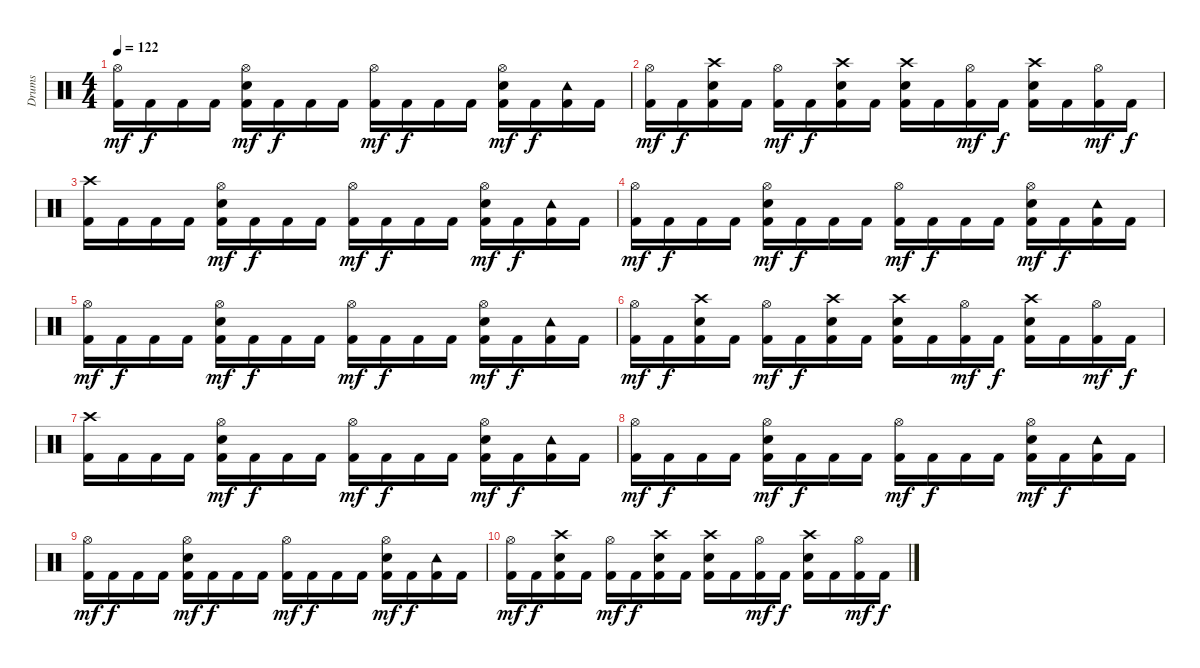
\track ("Drums" "Drums") {instrument percussion}
\staff {score}
\articulation defaults
\ts (4 4)
\tempo 122
\clef neutral
\ks c
("Hi-Hat (open)" "Kick (hit) 2").16{dy mf} "Kick (hit) 2".16{dy f} "Kick (hit) 2".16 "Kick (hit) 2".16 ("Hi-Hat (open)" "Electric Snare (hit)" "Kick (hit) 2").16{dy mf} "Kick (hit) 2".16{dy f} "Kick (hit) 2".16 "Kick (hit) 2".16 ("Hi-Hat (open)" "Kick (hit) 2").16{dy mf} "Kick (hit) 2".16{dy f} "Kick (hit) 2".16 "Kick (hit) 2".16 ("Hi-Hat (open)" "Electric Snare (hit)" "Kick (hit) 2").16{dy mf} "Kick (hit) 2".16{dy f} ("Tambourine (hit)" "Kick (hit) 2").16 "Kick (hit) 2".16 |
("Hi-Hat (open)" "Kick (hit) 2").16{dy mf} "Kick (hit) 2".16{dy f} ("Crash high (hit)" "Electric Snare (hit)" "Kick (hit) 2").16 "Kick (hit) 2".16 ("Hi-Hat (open)" "Kick (hit) 2").16{dy mf} "Kick (hit) 2".16{dy f} ("Crash high (hit)" "Electric Snare (hit)" "Kick (hit) 2").16 "Kick (hit) 2".16 ("Crash high (hit)" "Electric Snare (hit)" "Kick (hit) 2").16 "Kick (hit) 2".16 ("Hi-Hat (open)" "Kick (hit) 2").16{dy mf} "Kick (hit) 2".16{dy f} ("Crash high (hit)" "Electric Snare (hit)" "Kick (hit) 2").16 "Kick (hit) 2".16 ("Hi-Hat (open)" "Kick (hit) 2").16{dy mf} "Kick (hit) 2".16{dy f} |
("Crash high (hit)" "Kick (hit) 2").16 "Kick (hit) 2".16 "Kick (hit) 2".16 "Kick (hit) 2".16 ("Hi-Hat (open)" "Electric Snare (hit)" "Kick (hit) 2").16{dy mf} "Kick (hit) 2".16{dy f} "Kick (hit) 2".16 "Kick (hit) 2".16 ("Hi-Hat (open)" "Kick (hit) 2").16{dy mf} "Kick (hit) 2".16{dy f} "Kick (hit) 2".16 "Kick (hit) 2".16 ("Hi-Hat (open)" "Electric Snare (hit)" "Kick (hit) 2").16{dy mf} "Kick (hit) 2".16{dy f} ("Tambourine (hit)" "Kick (hit) 2").16 "Kick (hit) 2".16 |
("Hi-Hat (open)" "Kick (hit) 2").16{dy mf} "Kick (hit) 2".16{dy f} "Kick (hit) 2".16 "Kick (hit) 2".16 ("Hi-Hat (open)" "Electric Snare (hit)" "Kick (hit) 2").16{dy mf} "Kick (hit) 2".16{dy f} "Kick (hit) 2".16 "Kick (hit) 2".16 ("Hi-Hat (open)" "Kick (hit) 2").16{dy mf} "Kick (hit) 2".16{dy f} "Kick (hit) 2".16 "Kick (hit) 2".16 ("Hi-Hat (open)" "Electric Snare (hit)" "Kick (hit) 2").16{dy mf} "Kick (hit) 2".16{dy f} ("Tambourine (hit)" "Kick (hit) 2").16 "Kick (hit) 2".16 |
("Hi-Hat (open)" "Kick (hit) 2").16{dy mf} "Kick (hit) 2".16{dy f} "Kick (hit) 2".16 "Kick (hit) 2".16 ("Hi-Hat (open)" "Electric Snare (hit)" "Kick (hit) 2").16{dy mf} "Kick (hit) 2".16{dy f} "Kick (hit) 2".16 "Kick (hit) 2".16 ("Hi-Hat (open)" "Kick (hit) 2").16{dy mf} "Kick (hit) 2".16{dy f} "Kick (hit) 2".16 "Kick (hit) 2".16 ("Hi-Hat (open)" "Electric Snare (hit)" "Kick (hit) 2").16{dy mf} "Kick (hit) 2".16{dy f} ("Tambourine (hit)" "Kick (hit) 2").16 "Kick (hit) 2".16 |
("Hi-Hat (open)" "Kick (hit) 2").16{dy mf} "Kick (hit) 2".16{dy f} ("Crash high (hit)" "Electric Snare (hit)" "Kick (hit) 2").16 "Kick (hit) 2".16 ("Hi-Hat (open)" "Kick (hit) 2").16{dy mf} "Kick (hit) 2".16{dy f} ("Crash high (hit)" "Electric Snare (hit)" "Kick (hit) 2").16 "Kick (hit) 2".16 ("Crash high (hit)" "Electric Snare (hit)" "Kick (hit) 2").16 "Kick (hit) 2".16 ("Hi-Hat (open)" "Kick (hit) 2").16{dy mf} "Kick (hit) 2".16{dy f} ("Crash high (hit)" "Electric Snare (hit)" "Kick (hit) 2").16 "Kick (hit) 2".16 ("Hi-Hat (open)" "Kick (hit) 2").16{dy mf} "Kick (hit) 2".16{dy f} |
("Crash high (hit)" "Kick (hit) 2").16 "Kick (hit) 2".16 "Kick (hit) 2".16 "Kick (hit) 2".16 ("Hi-Hat (open)" "Electric Snare (hit)" "Kick (hit) 2").16{dy mf} "Kick (hit) 2".16{dy f} "Kick (hit) 2".16 "Kick (hit) 2".16 ("Hi-Hat (open)" "Kick (hit) 2").16{dy mf} "Kick (hit) 2".16{dy f} "Kick (hit) 2".16 "Kick (hit) 2".16 ("Hi-Hat (open)" "Electric Snare (hit)" "Kick (hit) 2").16{dy mf} "Kick (hit) 2".16{dy f} ("Tambourine (hit)" "Kick (hit) 2").16 "Kick (hit) 2".16 |
("Hi-Hat (open)" "Kick (hit) 2").16{dy mf} "Kick (hit) 2".16{dy f} "Kick (hit) 2".16 "Kick (hit) 2".16 ("Hi-Hat (open)" "Electric Snare (hit)" "Kick (hit) 2").16{dy mf} "Kick (hit) 2".16{dy f} "Kick (hit) 2".16 "Kick (hit) 2".16 ("Hi-Hat (open)" "Kick (hit) 2").16{dy mf} "Kick (hit) 2".16{dy f} "Kick (hit) 2".16 "Kick (hit) 2".16 ("Hi-Hat (open)" "Electric Snare (hit)" "Kick (hit) 2").16{dy mf} "Kick (hit) 2".16{dy f} ("Tambourine (hit)" "Kick (hit) 2").16 "Kick (hit) 2".16 |
("Hi-Hat (open)" "Kick (hit) 2").16{dy mf} "Kick (hit) 2".16{dy f} "Kick (hit) 2".16 "Kick (hit) 2".16 ("Hi-Hat (open)" "Electric Snare (hit)" "Kick (hit) 2").16{dy mf} "Kick (hit) 2".16{dy f} "Kick (hit) 2".16 "Kick (hit) 2".16 ("Hi-Hat (open)" "Kick (hit) 2").16{dy mf} "Kick (hit) 2".16{dy f} "Kick (hit) 2".16 "Kick (hit) 2".16 ("Hi-Hat (open)" "Electric Snare (hit)" "Kick (hit) 2").16{dy mf} "Kick (hit) 2".16{dy f} ("Tambourine (hit)" "Kick (hit) 2").16 "Kick (hit) 2".16 |
("Hi-Hat (open)" "Kick (hit) 2").16{dy mf} "Kick (hit) 2".16{dy f} ("Crash high (hit)" "Electric Snare (hit)" "Kick (hit) 2").16 "Kick (hit) 2".16 ("Hi-Hat (open)" "Kick (hit) 2").16{dy mf} "Kick (hit) 2".16{dy f} ("Crash high (hit)" "Electric Snare (hit)" "Kick (hit) 2").16 "Kick (hit) 2".16 ("Crash high (hit)" "Electric Snare (hit)" "Kick (hit) 2").16 "Kick (hit) 2".16 ("Hi-Hat (open)" "Kick (hit) 2").16{dy mf} "Kick (hit) 2".16{dy f} ("Crash high (hit)" "Electric Snare (hit)" "Kick (hit) 2").16 "Kick (hit) 2".16 ("Hi-Hat (open)" "Kick (hit) 2").16{dy mf} "Kick (hit) 2".16{dy f}
